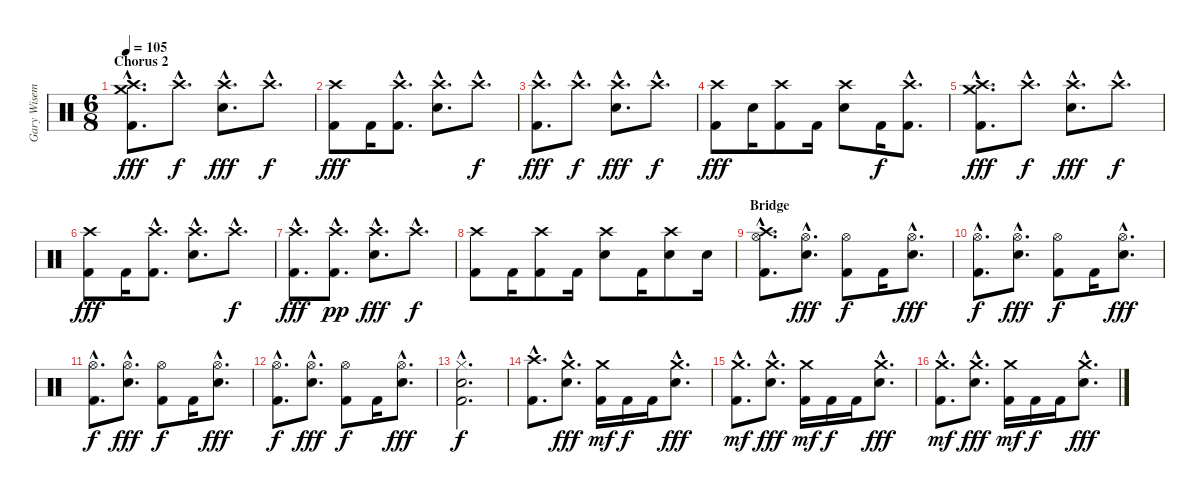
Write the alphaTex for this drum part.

\track ("Gary Wiseman - Drums" "Gary Wisem") {instrument percussion}
\staff {score}
\articulation defaults
\ts (6 8)
\section ("" "Chorus 2")
\tempo 105
\clef neutral
\ks c
("Crash medium (hit)"{hac} "Crash high (hit)"{hac} "Kick (hit) 2"{hac}).8{d dy fff} "Crash high (hit)"{hac}.8{d dy f} ("Crash high (hit)"{hac} "Electric Snare (hit)"{hac}).8{d dy fff} "Crash high (hit)"{hac}.8{d dy f} |
("Crash high (hit)" "Kick (hit) 2").8{dy fff} "Kick (hit) 2".16 ("Crash high (hit)"{hac} "Kick (hit) 2"{hac}).8{d} ("Crash high (hit)"{hac} "Electric Snare (hit)"{hac}).8{d} "Crash high (hit)"{hac}.8{d dy f} |
("Crash high (hit)"{hac} "Kick (hit) 2"{hac}).8{d dy fff} "Crash high (hit)"{hac}.8{d dy f} ("Crash high (hit)"{hac} "Electric Snare (hit)"{hac}).8{d dy fff} "Crash high (hit)"{hac}.8{d dy f} |
("Crash high (hit)" "Kick (hit) 2").8{dy fff} "Electric Snare (hit)".16 ("Crash high (hit)" "Kick (hit) 2").8 "Kick (hit) 2".16 ("Crash high (hit)" "Electric Snare (hit)").8 "Kick (hit) 2".16{dy f} ("Crash high (hit)"{hac} "Kick (hit) 2"{hac}).8{d} |
("Crash medium (hit)"{hac} "Crash high (hit)"{hac} "Kick (hit) 2"{hac}).8{d dy fff} "Crash high (hit)"{hac}.8{d dy f} ("Crash high (hit)"{hac} "Electric Snare (hit)"{hac}).8{d dy fff} "Crash high (hit)"{hac}.8{d dy f} |
("Crash high (hit)" "Kick (hit) 2").8{dy fff} "Kick (hit) 2".16 ("Crash high (hit)"{hac} "Kick (hit) 2"{hac}).8{d} ("Crash high (hit)"{hac} "Electric Snare (hit)"{hac}).8{d} "Crash high (hit)"{hac}.8{d dy f} |
("Crash high (hit)"{hac} "Kick (hit) 2"{hac}).8{d dy fff} ("Crash high (hit)"{hac} "Kick (hit) 2"{hac}).8{d dy pp} ("Crash high (hit)"{hac} "Electric Snare (hit)"{hac}).8{d dy fff} "Crash high (hit)"{hac}.8{d dy f} |
("Crash high (hit)" "Kick (hit) 2").8 "Kick (hit) 2".16 ("Crash high (hit)" "Kick (hit) 2").8 "Kick (hit) 2".16 ("Crash high (hit)" "Electric Snare (hit)").8 "Kick (hit) 2".16 ("Crash high (hit)" "Electric Snare (hit)").8 "Electric Snare (hit)".16 |
\section ("" "Bridge")
("Crash high (hit)"{hac} "Hi-Hat (open)"{hac} "Kick (hit) 2"{hac}).8{d} ("Hi-Hat (open)"{hac} "Electric Snare (hit)"{hac}).8{d dy fff} ("Hi-Hat (open)" "Kick (hit) 2").8{dy f} "Kick (hit) 2".16 ("Hi-Hat (open)"{hac} "Electric Snare (hit)"{hac}).8{d dy fff} |
("Hi-Hat (open)"{hac} "Kick (hit) 2"{hac}).8{d dy f} ("Hi-Hat (open)"{hac} "Electric Snare (hit)"{hac}).8{d dy fff} ("Hi-Hat (open)" "Kick (hit) 2").8{dy f} "Kick (hit) 2".16 ("Hi-Hat (open)"{hac} "Electric Snare (hit)"{hac}).8{d dy fff} |
("Hi-Hat (open)"{hac} "Kick (hit) 2"{hac}).8{d dy f} ("Hi-Hat (open)"{hac} "Electric Snare (hit)"{hac}).8{d dy fff} ("Hi-Hat (open)" "Kick (hit) 2").8{dy f} "Kick (hit) 2".16 ("Hi-Hat (open)"{hac} "Electric Snare (hit)"{hac}).8{d dy fff} |
("Hi-Hat (open)"{hac} "Kick (hit) 2"{hac}).8{d dy f} ("Hi-Hat (open)"{hac} "Electric Snare (hit)"{hac}).8{d dy fff} ("Hi-Hat (open)" "Kick (hit) 2").8{dy f} "Kick (hit) 2".16 ("Hi-Hat (open)"{hac} "Electric Snare (hit)"{hac}).8{d dy fff} |
("Hi-Hat (closed)"{hac} "Electric Snare (hit)"{hac} "Kick (hit) 2"{hac}).2{d dy f} |
("Crash high (hit)"{hac} "Kick (hit) 2"{hac}).8{d} ("Crash medium (hit)"{hac} "Electric Snare (hit)"{hac}).8{d dy fff} ("Crash medium (hit)" "Kick (hit) 2").16{dy mf} "Kick (hit) 2".16{dy f} "Kick (hit) 2".16 ("Crash medium (hit)"{hac} "Electric Snare (hit)"{hac}).8{d dy fff} |
("Crash medium (hit)"{hac} "Kick (hit) 2"{hac}).8{d dy mf} ("Crash medium (hit)"{hac} "Electric Snare (hit)"{hac}).8{d dy fff} ("Crash medium (hit)" "Kick (hit) 2").16{dy mf} "Kick (hit) 2".16{dy f} "Kick (hit) 2".16 ("Crash medium (hit)"{hac} "Electric Snare (hit)"{hac}).8{d dy fff} |
("Crash medium (hit)"{hac} "Kick (hit) 2"{hac}).8{d dy mf} ("Crash medium (hit)"{hac} "Electric Snare (hit)"{hac}).8{d dy fff} ("Crash medium (hit)" "Kick (hit) 2").16{dy mf} "Kick (hit) 2".16{dy f} "Kick (hit) 2".16 ("Crash medium (hit)"{hac} "Electric Snare (hit)"{hac}).8{d dy fff}
